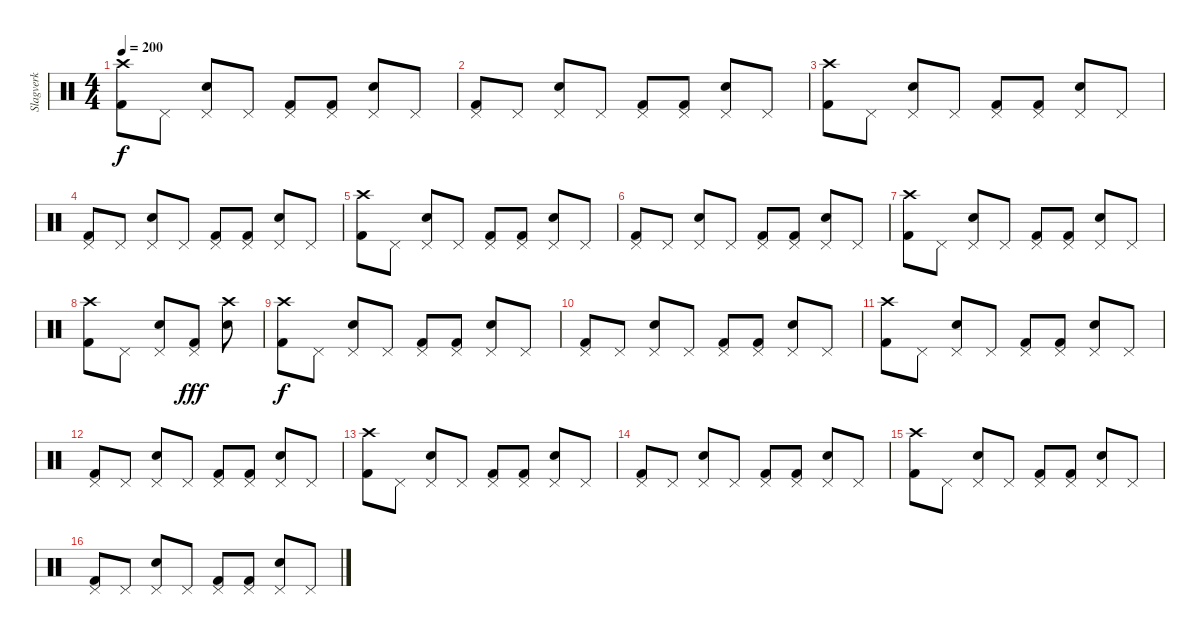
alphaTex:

\track ("Slagverk" "Slagverk") {instrument percussion}
\staff {score}
\articulation defaults
\ts (4 4)
\tempo 200
\clef neutral
\ks c
("Crash high (hit)" "Kick (hit) 2").8{dy f} "Pedal Hi-Hat (hit)".8 ("Pedal Hi-Hat (hit)" "Electric Snare (hit)").8 "Pedal Hi-Hat (hit)".8 ("Pedal Hi-Hat (hit)" "Kick (hit) 2").8 ("Pedal Hi-Hat (hit)" "Kick (hit) 2").8 ("Pedal Hi-Hat (hit)" "Electric Snare (hit)").8 "Pedal Hi-Hat (hit)".8 |
("Pedal Hi-Hat (hit)" "Kick (hit) 2").8 "Pedal Hi-Hat (hit)".8 ("Pedal Hi-Hat (hit)" "Electric Snare (hit)").8 "Pedal Hi-Hat (hit)".8 ("Pedal Hi-Hat (hit)" "Kick (hit) 2").8 ("Pedal Hi-Hat (hit)" "Kick (hit) 2").8 ("Pedal Hi-Hat (hit)" "Electric Snare (hit)").8 "Pedal Hi-Hat (hit)".8 |
("Crash high (hit)" "Kick (hit) 2").8 "Pedal Hi-Hat (hit)".8 ("Pedal Hi-Hat (hit)" "Electric Snare (hit)").8 "Pedal Hi-Hat (hit)".8 ("Pedal Hi-Hat (hit)" "Kick (hit) 2").8 ("Pedal Hi-Hat (hit)" "Kick (hit) 2").8 ("Pedal Hi-Hat (hit)" "Electric Snare (hit)").8 "Pedal Hi-Hat (hit)".8 |
("Pedal Hi-Hat (hit)" "Kick (hit) 2").8 "Pedal Hi-Hat (hit)".8 ("Pedal Hi-Hat (hit)" "Electric Snare (hit)").8 "Pedal Hi-Hat (hit)".8 ("Pedal Hi-Hat (hit)" "Kick (hit) 2").8 ("Pedal Hi-Hat (hit)" "Kick (hit) 2").8 ("Pedal Hi-Hat (hit)" "Electric Snare (hit)").8 "Pedal Hi-Hat (hit)".8 |
("Crash high (hit)" "Kick (hit) 2").8 "Pedal Hi-Hat (hit)".8 ("Pedal Hi-Hat (hit)" "Electric Snare (hit)").8 "Pedal Hi-Hat (hit)".8 ("Pedal Hi-Hat (hit)" "Kick (hit) 2").8 ("Pedal Hi-Hat (hit)" "Kick (hit) 2").8 ("Pedal Hi-Hat (hit)" "Electric Snare (hit)").8 "Pedal Hi-Hat (hit)".8 |
("Pedal Hi-Hat (hit)" "Kick (hit) 2").8 "Pedal Hi-Hat (hit)".8 ("Pedal Hi-Hat (hit)" "Electric Snare (hit)").8 "Pedal Hi-Hat (hit)".8 ("Pedal Hi-Hat (hit)" "Kick (hit) 2").8 ("Pedal Hi-Hat (hit)" "Kick (hit) 2").8 ("Pedal Hi-Hat (hit)" "Electric Snare (hit)").8 "Pedal Hi-Hat (hit)".8 |
("Crash high (hit)" "Kick (hit) 2").8 "Pedal Hi-Hat (hit)".8 ("Pedal Hi-Hat (hit)" "Electric Snare (hit)").8 "Pedal Hi-Hat (hit)".8 ("Pedal Hi-Hat (hit)" "Kick (hit) 2").8 ("Pedal Hi-Hat (hit)" "Kick (hit) 2").8 ("Pedal Hi-Hat (hit)" "Electric Snare (hit)").8 "Pedal Hi-Hat (hit)".8 |
("Crash high (hit)" "Kick (hit) 2").8 "Pedal Hi-Hat (hit)".8 ("Pedal Hi-Hat (hit)" "Electric Snare (hit)").8 ("Pedal Hi-Hat (hit)" "Kick (hit) 2").8{dy fff} ("Crash high (hit)" "Electric Snare (hit)").8 |
("Crash high (hit)" "Kick (hit) 2").8{dy f} "Pedal Hi-Hat (hit)".8 ("Pedal Hi-Hat (hit)" "Electric Snare (hit)").8 "Pedal Hi-Hat (hit)".8 ("Pedal Hi-Hat (hit)" "Kick (hit) 2").8 ("Pedal Hi-Hat (hit)" "Kick (hit) 2").8 ("Pedal Hi-Hat (hit)" "Electric Snare (hit)").8 "Pedal Hi-Hat (hit)".8 |
("Pedal Hi-Hat (hit)" "Kick (hit) 2").8 "Pedal Hi-Hat (hit)".8 ("Pedal Hi-Hat (hit)" "Electric Snare (hit)").8 "Pedal Hi-Hat (hit)".8 ("Pedal Hi-Hat (hit)" "Kick (hit) 2").8 ("Pedal Hi-Hat (hit)" "Kick (hit) 2").8 ("Pedal Hi-Hat (hit)" "Electric Snare (hit)").8 "Pedal Hi-Hat (hit)".8 |
("Crash high (hit)" "Kick (hit) 2").8 "Pedal Hi-Hat (hit)".8 ("Pedal Hi-Hat (hit)" "Electric Snare (hit)").8 "Pedal Hi-Hat (hit)".8 ("Pedal Hi-Hat (hit)" "Kick (hit) 2").8 ("Pedal Hi-Hat (hit)" "Kick (hit) 2").8 ("Pedal Hi-Hat (hit)" "Electric Snare (hit)").8 "Pedal Hi-Hat (hit)".8 |
("Pedal Hi-Hat (hit)" "Kick (hit) 2").8 "Pedal Hi-Hat (hit)".8 ("Pedal Hi-Hat (hit)" "Electric Snare (hit)").8 "Pedal Hi-Hat (hit)".8 ("Pedal Hi-Hat (hit)" "Kick (hit) 2").8 ("Pedal Hi-Hat (hit)" "Kick (hit) 2").8 ("Pedal Hi-Hat (hit)" "Electric Snare (hit)").8 "Pedal Hi-Hat (hit)".8 |
("Crash high (hit)" "Kick (hit) 2").8 "Pedal Hi-Hat (hit)".8 ("Pedal Hi-Hat (hit)" "Electric Snare (hit)").8 "Pedal Hi-Hat (hit)".8 ("Pedal Hi-Hat (hit)" "Kick (hit) 2").8 ("Pedal Hi-Hat (hit)" "Kick (hit) 2").8 ("Pedal Hi-Hat (hit)" "Electric Snare (hit)").8 "Pedal Hi-Hat (hit)".8 |
("Pedal Hi-Hat (hit)" "Kick (hit) 2").8 "Pedal Hi-Hat (hit)".8 ("Pedal Hi-Hat (hit)" "Electric Snare (hit)").8 "Pedal Hi-Hat (hit)".8 ("Pedal Hi-Hat (hit)" "Kick (hit) 2").8 ("Pedal Hi-Hat (hit)" "Kick (hit) 2").8 ("Pedal Hi-Hat (hit)" "Electric Snare (hit)").8 "Pedal Hi-Hat (hit)".8 |
("Crash high (hit)" "Kick (hit) 2").8 "Pedal Hi-Hat (hit)".8 ("Pedal Hi-Hat (hit)" "Electric Snare (hit)").8 "Pedal Hi-Hat (hit)".8 ("Pedal Hi-Hat (hit)" "Kick (hit) 2").8 ("Pedal Hi-Hat (hit)" "Kick (hit) 2").8 ("Pedal Hi-Hat (hit)" "Electric Snare (hit)").8 "Pedal Hi-Hat (hit)".8 |
("Pedal Hi-Hat (hit)" "Kick (hit) 2").8 "Pedal Hi-Hat (hit)".8 ("Pedal Hi-Hat (hit)" "Electric Snare (hit)").8 "Pedal Hi-Hat (hit)".8 ("Pedal Hi-Hat (hit)" "Kick (hit) 2").8 ("Pedal Hi-Hat (hit)" "Kick (hit) 2").8 ("Pedal Hi-Hat (hit)" "Electric Snare (hit)").8 "Pedal Hi-Hat (hit)".8
